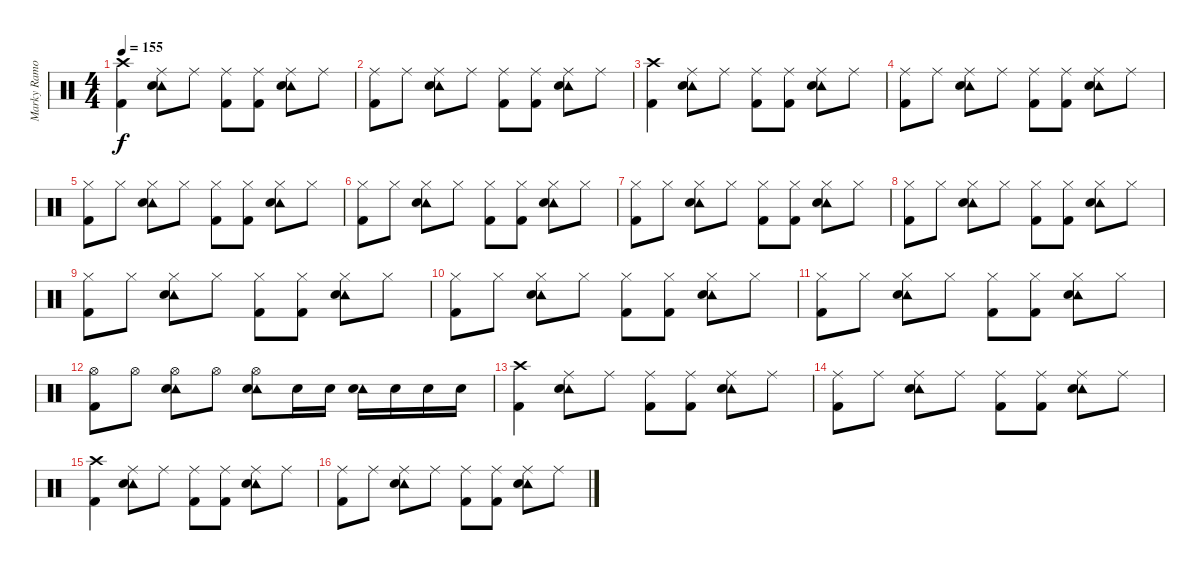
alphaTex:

\track ("Marky Ramone" "Marky Ramo") {instrument percussion}
\staff {score}
\articulation defaults
\ts (4 4)
\tempo 155
\clef neutral
\ks c
("Kick (hit) 2" "Crash high (hit)").4{dy f} ("Tambourine (hit)" "Electric Snare (hit)" "Ride (middle)").8 "Ride (middle)".8 ("Kick (hit) 2" "Ride (middle)").8 ("Kick (hit) 2" "Ride (middle)").8 ("Tambourine (hit)" "Electric Snare (hit)" "Ride (middle)").8 "Ride (middle)".8 |
("Kick (hit) 2" "Ride (middle)").8 "Ride (middle)".8 ("Tambourine (hit)" "Electric Snare (hit)" "Ride (middle)").8 "Ride (middle)".8 ("Kick (hit) 2" "Ride (middle)").8 ("Kick (hit) 2" "Ride (middle)").8 ("Tambourine (hit)" "Electric Snare (hit)" "Ride (middle)").8 "Ride (middle)".8 |
("Kick (hit) 2" "Crash high (hit)").4 ("Tambourine (hit)" "Electric Snare (hit)" "Ride (middle)").8 "Ride (middle)".8 ("Kick (hit) 2" "Ride (middle)").8 ("Kick (hit) 2" "Ride (middle)").8 ("Tambourine (hit)" "Electric Snare (hit)" "Ride (middle)").8 "Ride (middle)".8 |
("Kick (hit) 2" "Ride (middle)").8 "Ride (middle)".8 ("Tambourine (hit)" "Electric Snare (hit)" "Ride (middle)").8 "Ride (middle)".8 ("Kick (hit) 2" "Ride (middle)").8 ("Kick (hit) 2" "Ride (middle)").8 ("Tambourine (hit)" "Electric Snare (hit)" "Ride (middle)").8 "Ride (middle)".8 |
("Kick (hit) 2" "Hi-Hat (closed)").8 "Hi-Hat (closed)".8 ("Tambourine (hit)" "Electric Snare (hit)" "Hi-Hat (closed)").8 "Hi-Hat (closed)".8 ("Kick (hit) 2" "Hi-Hat (closed)").8 ("Kick (hit) 2" "Hi-Hat (closed)").8 ("Tambourine (hit)" "Electric Snare (hit)" "Hi-Hat (closed)").8 "Hi-Hat (closed)".8 |
("Kick (hit) 2" "Hi-Hat (closed)").8 "Hi-Hat (closed)".8 ("Tambourine (hit)" "Electric Snare (hit)" "Hi-Hat (closed)").8 "Hi-Hat (closed)".8 ("Kick (hit) 2" "Hi-Hat (closed)").8 ("Kick (hit) 2" "Hi-Hat (closed)").8 ("Tambourine (hit)" "Electric Snare (hit)" "Hi-Hat (closed)").8 "Hi-Hat (closed)".8 |
("Kick (hit) 2" "Hi-Hat (closed)").8 "Hi-Hat (closed)".8 ("Tambourine (hit)" "Electric Snare (hit)" "Hi-Hat (closed)").8 "Hi-Hat (closed)".8 ("Kick (hit) 2" "Hi-Hat (closed)").8 ("Kick (hit) 2" "Hi-Hat (closed)").8 ("Tambourine (hit)" "Electric Snare (hit)" "Hi-Hat (closed)").8 "Hi-Hat (closed)".8 |
("Kick (hit) 2" "Hi-Hat (closed)").8 "Hi-Hat (closed)".8 ("Tambourine (hit)" "Electric Snare (hit)" "Hi-Hat (closed)").8 "Hi-Hat (closed)".8 ("Kick (hit) 2" "Hi-Hat (closed)").8 ("Kick (hit) 2" "Hi-Hat (closed)").8 ("Tambourine (hit)" "Electric Snare (hit)" "Hi-Hat (closed)").8 "Hi-Hat (closed)".8 |
("Kick (hit) 2" "Hi-Hat (closed)").8 "Hi-Hat (closed)".8 ("Tambourine (hit)" "Electric Snare (hit)" "Hi-Hat (closed)").8 "Hi-Hat (closed)".8 ("Kick (hit) 2" "Hi-Hat (closed)").8 ("Kick (hit) 2" "Hi-Hat (closed)").8 ("Tambourine (hit)" "Electric Snare (hit)" "Hi-Hat (closed)").8 "Hi-Hat (closed)".8 |
("Kick (hit) 2" "Hi-Hat (closed)").8 "Hi-Hat (closed)".8 ("Tambourine (hit)" "Electric Snare (hit)" "Hi-Hat (closed)").8 "Hi-Hat (closed)".8 ("Kick (hit) 2" "Hi-Hat (closed)").8 ("Kick (hit) 2" "Hi-Hat (closed)").8 ("Tambourine (hit)" "Electric Snare (hit)" "Hi-Hat (closed)").8 "Hi-Hat (closed)".8 |
("Kick (hit) 2" "Hi-Hat (closed)").8 "Hi-Hat (closed)".8 ("Tambourine (hit)" "Electric Snare (hit)" "Hi-Hat (closed)").8 "Hi-Hat (closed)".8 ("Kick (hit) 2" "Hi-Hat (closed)").8 ("Kick (hit) 2" "Hi-Hat (closed)").8 ("Tambourine (hit)" "Electric Snare (hit)" "Hi-Hat (closed)").8 "Hi-Hat (closed)".8 |
("Kick (hit) 2" "Hi-Hat (open)").8 "Hi-Hat (open)".8 ("Tambourine (hit)" "Electric Snare (hit)" "Hi-Hat (open)").8 "Hi-Hat (open)".8 ("Tambourine (hit)" "Electric Snare (hit)" "Hi-Hat (open)").8 "Electric Snare (hit)".16 "Electric Snare (hit)".16 ("Tambourine (hit)" "Electric Snare (hit)").16 "Electric Snare (hit)".16 "Electric Snare (hit)".16 "Electric Snare (hit)".16 |
("Kick (hit) 2" "Crash high (hit)").4 ("Tambourine (hit)" "Electric Snare (hit)" "Ride (middle)").8 "Ride (middle)".8 ("Kick (hit) 2" "Ride (middle)").8 ("Kick (hit) 2" "Ride (middle)").8 ("Tambourine (hit)" "Electric Snare (hit)" "Ride (middle)").8 "Ride (middle)".8 |
("Kick (hit) 2" "Ride (middle)").8 "Ride (middle)".8 ("Tambourine (hit)" "Electric Snare (hit)" "Ride (middle)").8 "Ride (middle)".8 ("Kick (hit) 2" "Ride (middle)").8 ("Kick (hit) 2" "Ride (middle)").8 ("Tambourine (hit)" "Electric Snare (hit)" "Ride (middle)").8 "Ride (middle)".8 |
("Kick (hit) 2" "Crash high (hit)").4 ("Tambourine (hit)" "Electric Snare (hit)" "Ride (middle)").8 "Ride (middle)".8 ("Kick (hit) 2" "Ride (middle)").8 ("Kick (hit) 2" "Ride (middle)").8 ("Tambourine (hit)" "Electric Snare (hit)" "Ride (middle)").8 "Ride (middle)".8 |
("Kick (hit) 2" "Ride (middle)").8 "Ride (middle)".8 ("Tambourine (hit)" "Electric Snare (hit)" "Ride (middle)").8 "Ride (middle)".8 ("Kick (hit) 2" "Ride (middle)").8 ("Kick (hit) 2" "Ride (middle)").8 ("Tambourine (hit)" "Electric Snare (hit)" "Ride (middle)").8 "Ride (middle)".8
